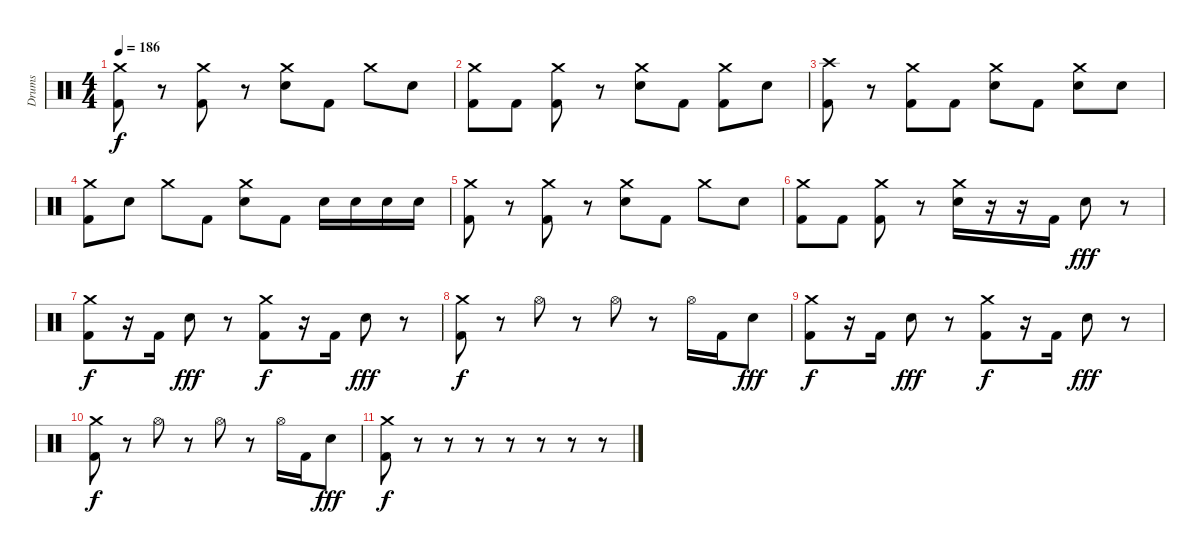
\track ("Drums" "Drums") {instrument percussion}
\staff {score}
\articulation defaults
\ts (4 4)
\tempo 186
\clef neutral
\ks c
("Crash medium (hit)" "Kick (hit) 2").8{dy f} r.8 ("Crash medium (hit)" "Kick (hit) 2").8 r.8 ("Crash medium (hit)" "Electric Snare (hit)").8 "Kick (hit) 2".8 "Crash medium (hit)".8 "Electric Snare (hit)".8 |
("Crash medium (hit)" "Kick (hit) 2").8 "Kick (hit) 2".8 ("Crash medium (hit)" "Kick (hit) 2").8 r.8 ("Crash medium (hit)" "Electric Snare (hit)").8 "Kick (hit) 2".8 ("Crash medium (hit)" "Kick (hit) 2").8 "Electric Snare (hit)".8 |
("Crash high (hit)" "Kick (hit) 2").8 r.8 ("Crash medium (hit)" "Kick (hit) 2").8 "Kick (hit) 2".8 ("Crash medium (hit)" "Electric Snare (hit)").8 "Kick (hit) 2".8 ("Crash medium (hit)" "Electric Snare (hit)").8 "Electric Snare (hit)".8 |
("Crash medium (hit)" "Kick (hit) 2").8 "Electric Snare (hit)".8 "Crash medium (hit)".8 "Kick (hit) 2".8 ("Crash medium (hit)" "Electric Snare (hit)").8 "Kick (hit) 2".8 "Electric Snare (hit)".16 "Electric Snare (hit)".16 "Electric Snare (hit)".16 "Electric Snare (hit)".16 |
("Crash medium (hit)" "Kick (hit) 2").8 r.8 ("Crash medium (hit)" "Kick (hit) 2").8 r.8 ("Crash medium (hit)" "Electric Snare (hit)").8 "Kick (hit) 2".8 "Crash medium (hit)".8 "Electric Snare (hit)".8 |
("Crash medium (hit)" "Kick (hit) 2").8 "Kick (hit) 2".8 ("Crash medium (hit)" "Kick (hit) 2").8 r.8 ("Crash medium (hit)" "Electric Snare (hit)").16 r.16 r.16 "Kick (hit) 2".16 "Electric Snare (hit)".8{dy fff} r.8 |
("Crash medium (hit)" "Kick (hit) 2").8{dy f} r.16 "Kick (hit) 2".16 "Electric Snare (hit)".8{dy fff} r.8 ("Crash medium (hit)" "Kick (hit) 2").8{dy f} r.16 "Kick (hit) 2".16 "Electric Snare (hit)".8{dy fff} r.8 |
("Crash medium (hit)" "Kick (hit) 2").8{dy f} r.8 "Hi-Hat (open)".8 r.8 "Hi-Hat (open)".8 r.8 "Hi-Hat (open)".16 "Kick (hit) 2".16 "Electric Snare (hit)".8{dy fff} |
("Crash medium (hit)" "Kick (hit) 2").8{dy f} r.16 "Kick (hit) 2".16 "Electric Snare (hit)".8{dy fff} r.8 ("Crash medium (hit)" "Kick (hit) 2").8{dy f} r.16 "Kick (hit) 2".16 "Electric Snare (hit)".8{dy fff} r.8 |
("Crash medium (hit)" "Kick (hit) 2").8{dy f} r.8 "Hi-Hat (open)".8 r.8 "Hi-Hat (open)".8 r.8 "Hi-Hat (open)".16 "Kick (hit) 2".16 "Electric Snare (hit)".8{dy fff} |
("Crash medium (hit)" "Kick (hit) 2").8{dy f} r.8 r.8 r.8 r.8 r.8 r.8 r.8
